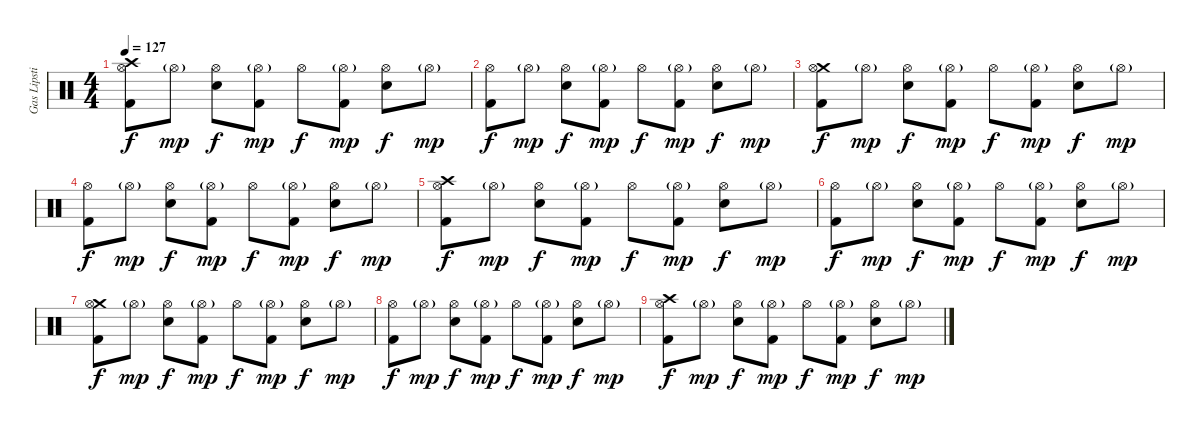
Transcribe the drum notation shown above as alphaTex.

\track ("Gas Lipstick (Drums)" "Gas Lipsti") {instrument percussion}
\staff {score}
\articulation defaults
\ts (4 4)
\tempo 127
\clef neutral
\ks c
("Crash high (hit)" "Hi-Hat (open)" "Kick (hit) 2").8{dy f volume 4} "Hi-Hat (open)"{g}.8{dy mp} ("Hi-Hat (open)" "Snare (hit) 2").8{dy f} ("Hi-Hat (open)"{g} "Kick (hit) 2").8{dy mp} "Hi-Hat (open)".8{dy f} ("Hi-Hat (open)"{g} "Kick (hit) 2").8{dy mp} ("Hi-Hat (open)" "Snare (hit) 2").8{dy f} "Hi-Hat (open)"{g}.8{dy mp} |
("Hi-Hat (open)" "Kick (hit) 2").8{dy f} "Hi-Hat (open)"{g}.8{dy mp} ("Hi-Hat (open)" "Snare (hit) 2").8{dy f} ("Hi-Hat (open)"{g} "Kick (hit) 2").8{dy mp} "Hi-Hat (open)".8{dy f} ("Hi-Hat (open)"{g} "Kick (hit) 2").8{dy mp} ("Hi-Hat (open)" "Snare (hit) 2").8{dy f} "Hi-Hat (open)"{g}.8{dy mp} |
("Crash medium (hit)" "Hi-Hat (open)" "Kick (hit) 2").8{dy f} "Hi-Hat (open)"{g}.8{dy mp} ("Hi-Hat (open)" "Snare (hit) 2").8{dy f} ("Hi-Hat (open)"{g} "Kick (hit) 2").8{dy mp} "Hi-Hat (open)".8{dy f} ("Hi-Hat (open)"{g} "Kick (hit) 2").8{dy mp} ("Hi-Hat (open)" "Snare (hit) 2").8{dy f} "Hi-Hat (open)"{g}.8{dy mp} |
("Hi-Hat (open)" "Kick (hit) 2").8{dy f} "Hi-Hat (open)"{g}.8{dy mp} ("Hi-Hat (open)" "Snare (hit) 2").8{dy f} ("Hi-Hat (open)"{g} "Kick (hit) 2").8{dy mp} "Hi-Hat (open)".8{dy f} ("Hi-Hat (open)"{g} "Kick (hit) 2").8{dy mp} ("Hi-Hat (open)" "Snare (hit) 2").8{dy f} "Hi-Hat (open)"{g}.8{dy mp} |
("Crash high (hit)" "Hi-Hat (open)" "Kick (hit) 2").8{dy f volume 1} "Hi-Hat (open)"{g}.8{dy mp} ("Hi-Hat (open)" "Snare (hit) 2").8{dy f} ("Hi-Hat (open)"{g} "Kick (hit) 2").8{dy mp} "Hi-Hat (open)".8{dy f} ("Hi-Hat (open)"{g} "Kick (hit) 2").8{dy mp} ("Hi-Hat (open)" "Snare (hit) 2").8{dy f} "Hi-Hat (open)"{g}.8{dy mp} |
("Hi-Hat (open)" "Kick (hit) 2").8{dy f} "Hi-Hat (open)"{g}.8{dy mp} ("Hi-Hat (open)" "Snare (hit) 2").8{dy f} ("Hi-Hat (open)"{g} "Kick (hit) 2").8{dy mp} "Hi-Hat (open)".8{dy f} ("Hi-Hat (open)"{g} "Kick (hit) 2").8{dy mp} ("Hi-Hat (open)" "Snare (hit) 2").8{dy f} "Hi-Hat (open)"{g}.8{dy mp} |
("Crash medium (hit)" "Hi-Hat (open)" "Kick (hit) 2").8{dy f} "Hi-Hat (open)"{g}.8{dy mp} ("Hi-Hat (open)" "Snare (hit) 2").8{dy f} ("Hi-Hat (open)"{g} "Kick (hit) 2").8{dy mp} "Hi-Hat (open)".8{dy f} ("Hi-Hat (open)"{g} "Kick (hit) 2").8{dy mp} ("Hi-Hat (open)" "Snare (hit) 2").8{dy f} "Hi-Hat (open)"{g}.8{dy mp} |
("Hi-Hat (open)" "Kick (hit) 2").8{dy f} "Hi-Hat (open)"{g}.8{dy mp} ("Hi-Hat (open)" "Snare (hit) 2").8{dy f} ("Hi-Hat (open)"{g} "Kick (hit) 2").8{dy mp} "Hi-Hat (open)".8{dy f} ("Hi-Hat (open)"{g} "Kick (hit) 2").8{dy mp} ("Hi-Hat (open)" "Snare (hit) 2").8{dy f} "Hi-Hat (open)"{g}.8{dy mp} |
("Crash high (hit)" "Hi-Hat (open)" "Kick (hit) 2").8{dy f} "Hi-Hat (open)"{g}.8{dy mp} ("Hi-Hat (open)" "Snare (hit) 2").8{dy f} ("Hi-Hat (open)"{g} "Kick (hit) 2").8{dy mp} "Hi-Hat (open)".8{dy f} ("Hi-Hat (open)"{g} "Kick (hit) 2").8{dy mp} ("Hi-Hat (open)" "Snare (hit) 2").8{dy f} "Hi-Hat (open)"{g}.8{dy mp}
